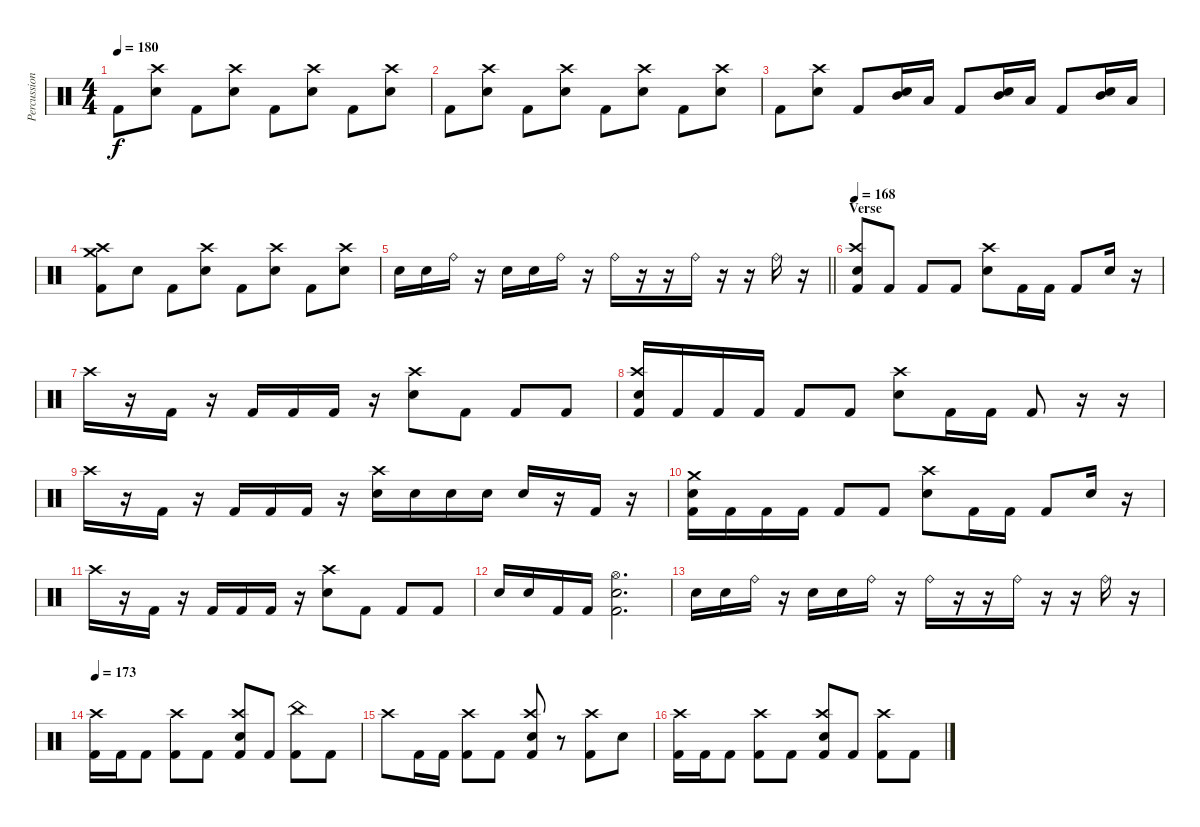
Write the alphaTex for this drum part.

\track ("Percussion" "Percussion") {instrument percussion}
\staff {score}
\articulation defaults
\ts (4 4)
\tempo 180
\clef neutral
\ks c "Kick (hit) 2".8{dy f}
("Crash high (hit)" "Electric Snare (hit)").8 "Kick (hit) 2".8 ("Crash high (hit)" "Electric Snare (hit)").8 "Kick (hit) 2".8 ("Crash high (hit)" "Electric Snare (hit)").8 "Kick (hit) 2".8 ("Crash high (hit)" "Electric Snare (hit)").8 |
"Kick (hit) 2".8 ("Crash high (hit)" "Electric Snare (hit)").8 "Kick (hit) 2".8 ("Crash high (hit)" "Electric Snare (hit)").8 "Kick (hit) 2".8 ("Crash high (hit)" "Electric Snare (hit)").8 "Kick (hit) 2".8 ("Crash high (hit)" "Electric Snare (hit)").8 |
"Kick (hit) 2".8 ("Crash high (hit)" "Electric Snare (hit)").8 "Kick (hit) 2".8 ("Mid Tom (hit)" "Electric Snare (hit)").16 "Low Tom (hit)".16 "Kick (hit) 2".8 ("Mid Tom (hit)" "Electric Snare (hit)").16 "Low Tom (hit)".16 "Kick (hit) 2".8 ("Mid Tom (hit)" "Electric Snare (hit)").16 "Low Tom (hit)".16 |
("Crash high (hit)" "Crash medium (hit)" "Kick (hit) 2").8 "Electric Snare (hit)".8 "Kick (hit) 2".8 ("Crash high (hit)" "Electric Snare (hit)").8 "Kick (hit) 2".8 ("Crash high (hit)" "Electric Snare (hit)").8 "Kick (hit) 2".8 ("Crash high (hit)" "Electric Snare (hit)").8 |
\barLineRight lightlight "Electric Snare (hit)".16 "Electric Snare (hit)".16 "Ride (bell)".16
r.16 "Electric Snare (hit)".16 "Electric Snare (hit)".16 "Ride (bell)".16 r.16 "Ride (bell)".16 r.16 r.16 "Ride (bell)".16 r.16 r.16 "Ride (bell)".16 r.16 |
\section ("" "Verse")
\tempo 168
("Crash high (hit)" "Electric Snare (hit)" "Kick (hit) 2").8 "Kick (hit) 2".8 "Kick (hit) 2".8 "Kick (hit) 2".8 ("Crash high (hit)" "Electric Snare (hit)").8 "Kick (hit) 2".16 "Kick (hit) 2".16 "Kick (hit) 2".8 "Electric Snare (hit)".16 r.16 |
"Crash high (hit)".16 r.16 "Kick (hit) 2".16 r.16 "Kick (hit) 2".16 "Kick (hit) 2".16 "Kick (hit) 2".16 r.16 ("Crash high (hit)" "Electric Snare (hit)").8 "Kick (hit) 2".8 "Kick (hit) 2".8 "Kick (hit) 2".8 |
("Crash high (hit)" "Electric Snare (hit)" "Kick (hit) 2").16 "Kick (hit) 2".16 "Kick (hit) 2".16 "Kick (hit) 2".16 "Kick (hit) 2".8 "Kick (hit) 2".8 ("Crash high (hit)" "Electric Snare (hit)").8 "Kick (hit) 2".16 "Kick (hit) 2".16 "Kick (hit) 2".8 r.16 r.16 |
"Crash high (hit)".16 r.16 "Kick (hit) 2".16 r.16 "Kick (hit) 2".16 "Kick (hit) 2".16 "Kick (hit) 2".16 r.16 ("Crash high (hit)" "Electric Snare (hit)").16 "Electric Snare (hit)".16 "Electric Snare (hit)".16 "Electric Snare (hit)".16 "Electric Snare (hit)".16 r.16 "Kick (hit) 2".16 r.16 |
("Crash medium (hit)" "Electric Snare (hit)" "Kick (hit) 2").16 "Kick (hit) 2".16 "Kick (hit) 2".16 "Kick (hit) 2".16 "Kick (hit) 2".8 "Kick (hit) 2".8 ("Crash high (hit)" "Electric Snare (hit)").8 "Kick (hit) 2".16 "Kick (hit) 2".16 "Kick (hit) 2".8 "Electric Snare (hit)".16 r.16 |
"Crash high (hit)".16 r.16 "Kick (hit) 2".16 r.16 "Kick (hit) 2".16 "Kick (hit) 2".16 "Kick (hit) 2".16 r.16 ("Crash high (hit)" "Electric Snare (hit)").8 "Kick (hit) 2".8 "Kick (hit) 2".8 "Kick (hit) 2".8 |
"Electric Snare (hit)".16 "Electric Snare (hit)".16 "Kick (hit) 2".16 "Kick (hit) 2".16 ("Hi-Hat (open)" "Electric Snare (hit)" "Kick (hit) 2").2{d} |
"Electric Snare (hit)".16 "Electric Snare (hit)".16 "Ride (bell)".16 r.16 "Electric Snare (hit)".16 "Electric Snare (hit)".16 "Ride (bell)".16 r.16 "Ride (bell)".16 r.16 r.16 "Ride (bell)".16 r.16 r.16 "Ride (bell)".16 r.16 |
\tempo 173
("Crash high (hit)" "Kick (hit) 2").16 "Kick (hit) 2".16 "Kick (hit) 2".8 ("Crash high (hit)" "Kick (hit) 2").8 "Kick (hit) 2".8 ("Crash high (hit)" "Electric Snare (hit)" "Kick (hit) 2").8 "Kick (hit) 2".8 ("China (hit)" "Kick (hit) 2").8 "Kick (hit) 2".8 |
"Crash high (hit)".8 "Kick (hit) 2".16 "Kick (hit) 2".16 ("Crash high (hit)" "Kick (hit) 2").8 "Kick (hit) 2".8 ("Crash high (hit)" "Electric Snare (hit)" "Kick (hit) 2").8 r.8 ("Crash high (hit)" "Kick (hit) 2").8 "Electric Snare (hit)".8 |
("Crash high (hit)" "Kick (hit) 2").16 "Kick (hit) 2".16 "Kick (hit) 2".8 ("Crash high (hit)" "Kick (hit) 2").8 "Kick (hit) 2".8 ("Electric Snare (hit)" "Crash high (hit)" "Kick (hit) 2").8 "Kick (hit) 2".8 ("Crash high (hit)" "Kick (hit) 2").8 "Kick (hit) 2".8
